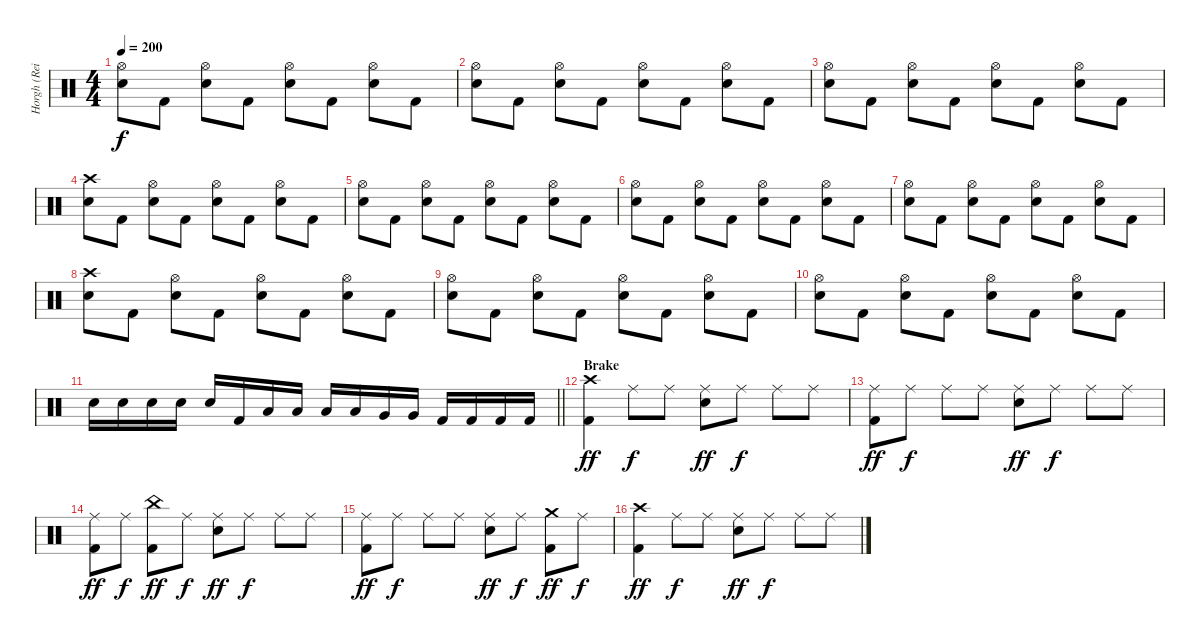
\track ("Horgh (Reidar Horghagen)" "Horgh (Rei") {instrument percussion}
\staff {score}
\articulation defaults
\ts (4 4)
\tempo 200
\clef neutral
\ks c
("Hi-Hat (open)" "Snare (hit) 2").8{dy f} "Kick (hit) 2".8 ("Hi-Hat (open)" "Snare (hit) 2").8 "Kick (hit) 2".8 ("Hi-Hat (open)" "Snare (hit) 2").8 "Kick (hit) 2".8 ("Hi-Hat (open)" "Snare (hit) 2").8 "Kick (hit) 2".8 |
("Hi-Hat (open)" "Snare (hit) 2").8 "Kick (hit) 2".8 ("Hi-Hat (open)" "Snare (hit) 2").8 "Kick (hit) 2".8 ("Hi-Hat (open)" "Snare (hit) 2").8 "Kick (hit) 2".8 ("Hi-Hat (open)" "Snare (hit) 2").8 "Kick (hit) 2".8 |
("Hi-Hat (open)" "Snare (hit) 2").8 "Kick (hit) 2".8 ("Hi-Hat (open)" "Snare (hit) 2").8 "Kick (hit) 2".8 ("Hi-Hat (open)" "Snare (hit) 2").8 "Kick (hit) 2".8 ("Hi-Hat (open)" "Snare (hit) 2").8 "Kick (hit) 2".8 |
("Crash high (hit)" "Snare (hit) 2").8 "Kick (hit) 2".8 ("Hi-Hat (open)" "Snare (hit) 2").8 "Kick (hit) 2".8 ("Hi-Hat (open)" "Snare (hit) 2").8 "Kick (hit) 2".8 ("Hi-Hat (open)" "Snare (hit) 2").8 "Kick (hit) 2".8 |
("Hi-Hat (open)" "Snare (hit) 2").8 "Kick (hit) 2".8 ("Hi-Hat (open)" "Snare (hit) 2").8 "Kick (hit) 2".8 ("Hi-Hat (open)" "Snare (hit) 2").8 "Kick (hit) 2".8 ("Hi-Hat (open)" "Snare (hit) 2").8 "Kick (hit) 2".8 |
("Hi-Hat (open)" "Snare (hit) 2").8 "Kick (hit) 2".8 ("Hi-Hat (open)" "Snare (hit) 2").8 "Kick (hit) 2".8 ("Hi-Hat (open)" "Snare (hit) 2").8 "Kick (hit) 2".8 ("Hi-Hat (open)" "Snare (hit) 2").8 "Kick (hit) 2".8 |
("Hi-Hat (open)" "Snare (hit) 2").8 "Kick (hit) 2".8 ("Hi-Hat (open)" "Snare (hit) 2").8 "Kick (hit) 2".8 ("Hi-Hat (open)" "Snare (hit) 2").8 "Kick (hit) 2".8 ("Hi-Hat (open)" "Snare (hit) 2").8 "Kick (hit) 2".8 |
("Crash high (hit)" "Snare (hit) 2").8 "Kick (hit) 2".8 ("Hi-Hat (open)" "Snare (hit) 2").8 "Kick (hit) 2".8 ("Hi-Hat (open)" "Snare (hit) 2").8 "Kick (hit) 2".8 ("Hi-Hat (open)" "Snare (hit) 2").8 "Kick (hit) 2".8 |
("Hi-Hat (open)" "Snare (hit) 2").8 "Kick (hit) 2".8 ("Hi-Hat (open)" "Snare (hit) 2").8 "Kick (hit) 2".8 ("Hi-Hat (open)" "Snare (hit) 2").8 "Kick (hit) 2".8 ("Hi-Hat (open)" "Snare (hit) 2").8 "Kick (hit) 2".8 |
("Hi-Hat (open)" "Snare (hit) 2").8 "Kick (hit) 2".8 ("Hi-Hat (open)" "Snare (hit) 2").8 "Kick (hit) 2".8 ("Hi-Hat (open)" "Snare (hit) 2").8 "Kick (hit) 2".8 ("Hi-Hat (open)" "Snare (hit) 2").8 "Kick (hit) 2".8 |
\barLineRight lightlight "Snare (hit) 2".16 "Snare (hit) 2".16 "Snare (hit) 2".16 "Snare (hit) 2".16 "Snare (hit) 2".16 "Kick (hit) 2".16 "Low Tom (hit)".16 "Low Tom (hit)".16 "Low Tom (hit)".16 "Low Tom (hit)".16 "Very Low Tom (hit)".16 "Very Low Tom (hit)".16 "Kick (hit) 2".16 "Kick (hit) 2".16 "Kick (hit) 2".16 "Kick (hit) 2".16
|
\section ("" "Brake")
("Crash high (hit)" "Kick (hit) 2").4{dy ff} "Ride (middle)".8{dy f} "Ride (middle)".8 ("Ride (middle)" "Snare (hit) 2").8{dy ff} "Ride (middle)".8{dy f} "Ride (middle)".8 "Ride (middle)".8 |
("Ride (middle)" "Kick (hit) 2").8{dy ff} "Ride (middle)".8{dy f} "Ride (middle)".8 "Ride (middle)".8 ("Ride (middle)" "Snare (hit) 2").8{dy ff} "Ride (middle)".8{dy f} "Ride (middle)".8 "Ride (middle)".8 |
("Ride (middle)" "Kick (hit) 2").8{dy ff} "Ride (middle)".8{dy f} ("China (hit)" "Kick (hit) 2").8{dy ff} "Ride (middle)".8{dy f} ("Ride (middle)" "Snare (hit) 2").8{dy ff} "Ride (middle)".8{dy f} "Ride (middle)".8 "Ride (middle)".8 |
("Ride (middle)" "Kick (hit) 2").8{dy ff} "Ride (middle)".8{dy f} "Ride (middle)".8 "Ride (middle)".8 ("Ride (middle)" "Snare (hit) 2").8{dy ff} "Ride (middle)".8{dy f} ("Crash medium (hit)" "Kick (hit) 2").8{dy ff} "Ride (middle)".8{dy f} |
("Crash high (hit)" "Kick (hit) 2").4{dy ff} "Ride (middle)".8{dy f} "Ride (middle)".8 ("Ride (middle)" "Snare (hit) 2").8{dy ff} "Ride (middle)".8{dy f} "Ride (middle)".8 "Ride (middle)".8
